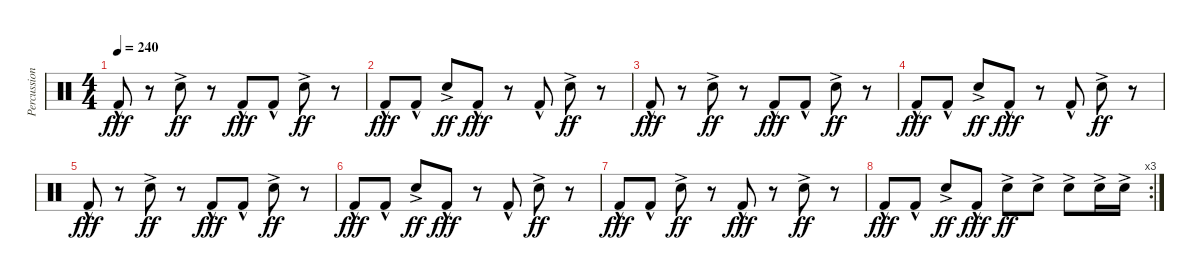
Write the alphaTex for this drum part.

\track ("Percussion" "Percussion") {instrument percussion bank 255}
\staff {score}
\articulation defaults
\ts (4 4)
\tempo 240
\clef neutral
\ks c "Kick (hit) 2"{hac}.8{dy fff}
r.8 "Snare (hit) 2"{ac}.8{dy ff} r.8 "Kick (hit) 2"{hac}.8{dy fff} "Kick (hit) 2"{hac}.8 "Snare (hit) 2"{ac}.8{dy ff} r.8 |
"Kick (hit) 2"{hac}.8{dy fff} "Kick (hit) 2"{hac}.8 "Snare (hit) 2"{ac}.8{dy ff} "Kick (hit) 2"{hac}.8{dy fff} r.8 "Kick (hit) 2"{hac}.8 "Snare (hit) 2"{ac}.8{dy ff} r.8 |
"Kick (hit) 2"{hac}.8{dy fff} r.8 "Snare (hit) 2"{ac}.8{dy ff} r.8 "Kick (hit) 2"{hac}.8{dy fff} "Kick (hit) 2"{hac}.8 "Snare (hit) 2"{ac}.8{dy ff} r.8 |
"Kick (hit) 2"{hac}.8{dy fff} "Kick (hit) 2"{hac}.8 "Snare (hit) 2"{ac}.8{dy ff} "Kick (hit) 2"{hac}.8{dy fff} r.8 "Kick (hit) 2"{hac}.8 "Snare (hit) 2"{ac}.8{dy ff} r.8 |
"Kick (hit) 2"{hac}.8{dy fff} r.8 "Snare (hit) 2"{ac}.8{dy ff} r.8 "Kick (hit) 2"{hac}.8{dy fff} "Kick (hit) 2"{hac}.8 "Snare (hit) 2"{ac}.8{dy ff} r.8 |
"Kick (hit) 2"{hac}.8{dy fff} "Kick (hit) 2"{hac}.8 "Snare (hit) 2"{ac}.8{dy ff} "Kick (hit) 2"{hac}.8{dy fff} r.8 "Kick (hit) 2"{hac}.8 "Snare (hit) 2"{ac}.8{dy ff} r.8 |
"Kick (hit) 2"{hac}.8{dy fff} "Kick (hit) 2"{hac}.8 "Snare (hit) 2"{ac}.8{dy ff} r.8 "Kick (hit) 2"{hac}.8{dy fff} r.8 "Snare (hit) 2"{ac}.8{dy ff} r.8 |
\rc 3 "Kick (hit) 2"{hac}.8{dy fff} "Kick (hit) 2"{hac}.8 "Snare (hit) 2"{ac}.8{dy ff} "Kick (hit) 2"{hac}.8{dy fff} "Snare (hit) 2"{ac}.8{dy ff} "Snare (hit) 2"{ac}.8 "Snare (hit) 2"{ac}.8 "Snare (hit) 2"{ac}.16 "Snare (hit) 2"{ac}.16
